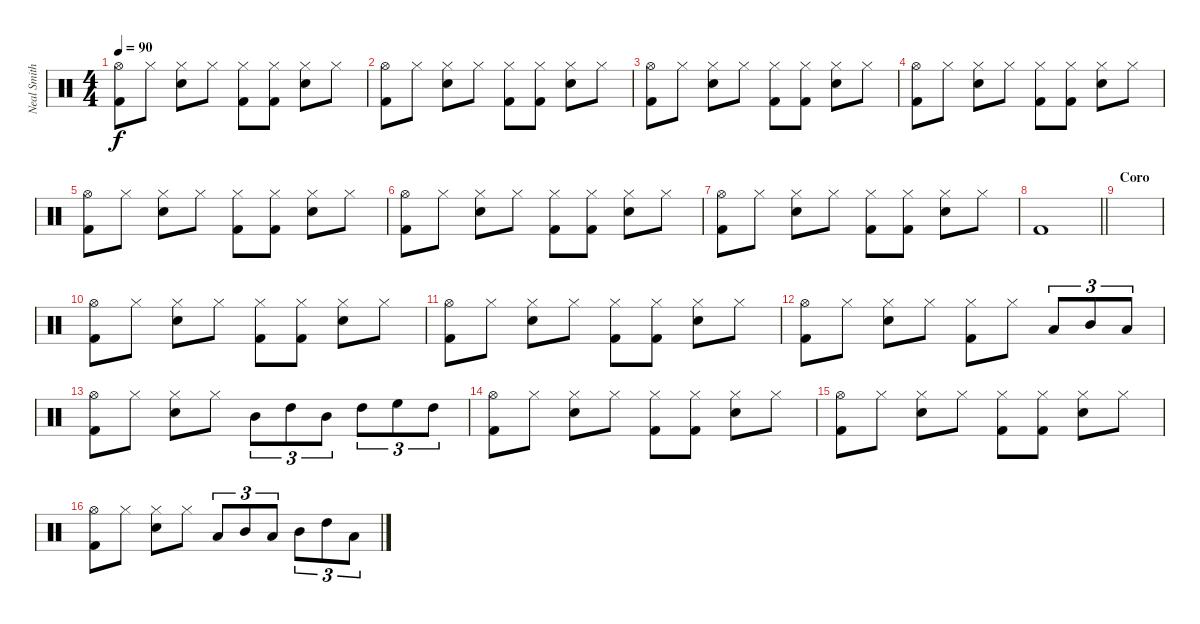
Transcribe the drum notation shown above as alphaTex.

\track ("Neal Smith" "Neal Smith") {instrument percussion}
\staff {score}
\articulation defaults
\ts (4 4)
\tempo 90
\clef neutral
\ks c
("Hi-Hat (open)" "Kick (hit) 2").8{dy f} "Hi-Hat (closed)".8 ("Hi-Hat (closed)" "Snare (hit) 2").8 "Hi-Hat (closed)".8 ("Hi-Hat (closed)" "Kick (hit) 2").8 ("Hi-Hat (closed)" "Kick (hit) 2").8 ("Hi-Hat (closed)" "Snare (hit) 2").8 "Hi-Hat (closed)".8 |
("Hi-Hat (open)" "Kick (hit) 2").8 "Hi-Hat (closed)".8 ("Hi-Hat (closed)" "Snare (hit) 2").8 "Hi-Hat (closed)".8 ("Hi-Hat (closed)" "Kick (hit) 2").8 ("Hi-Hat (closed)" "Kick (hit) 2").8 ("Hi-Hat (closed)" "Snare (hit) 2").8 "Hi-Hat (closed)".8 |
("Hi-Hat (open)" "Kick (hit) 2").8 "Hi-Hat (closed)".8 ("Hi-Hat (closed)" "Snare (hit) 2").8 "Hi-Hat (closed)".8 ("Hi-Hat (closed)" "Kick (hit) 2").8 ("Hi-Hat (closed)" "Kick (hit) 2").8 ("Hi-Hat (closed)" "Snare (hit) 2").8 "Hi-Hat (closed)".8 |
("Hi-Hat (open)" "Kick (hit) 2").8 "Hi-Hat (closed)".8 ("Hi-Hat (closed)" "Snare (hit) 2").8 "Hi-Hat (closed)".8 ("Hi-Hat (closed)" "Kick (hit) 2").8 ("Hi-Hat (closed)" "Kick (hit) 2").8 ("Hi-Hat (closed)" "Snare (hit) 2").8 "Hi-Hat (closed)".8 |
("Hi-Hat (open)" "Kick (hit) 2").8 "Hi-Hat (closed)".8 ("Hi-Hat (closed)" "Snare (hit) 2").8 "Hi-Hat (closed)".8 ("Hi-Hat (closed)" "Kick (hit) 2").8 ("Hi-Hat (closed)" "Kick (hit) 2").8 ("Hi-Hat (closed)" "Snare (hit) 2").8 "Hi-Hat (closed)".8 |
("Hi-Hat (open)" "Kick (hit) 2").8 "Hi-Hat (closed)".8 ("Hi-Hat (closed)" "Snare (hit) 2").8 "Hi-Hat (closed)".8 ("Hi-Hat (closed)" "Kick (hit) 2").8 ("Hi-Hat (closed)" "Kick (hit) 2").8 ("Hi-Hat (closed)" "Snare (hit) 2").8 "Hi-Hat (closed)".8 |
("Hi-Hat (open)" "Kick (hit) 2").8 "Hi-Hat (closed)".8 ("Hi-Hat (closed)" "Snare (hit) 2").8 "Hi-Hat (closed)".8 ("Hi-Hat (closed)" "Kick (hit) 2").8 ("Hi-Hat (closed)" "Kick (hit) 2").8 ("Hi-Hat (closed)" "Snare (hit) 2").8 "Hi-Hat (closed)".8 |
\barLineRight lightlight "Kick (hit) 2".1
|
\section ("" "Coro")
|
("Hi-Hat (open)" "Kick (hit) 2").8 "Hi-Hat (closed)".8 ("Hi-Hat (closed)" "Snare (hit) 2").8 "Hi-Hat (closed)".8 ("Hi-Hat (closed)" "Kick (hit) 2").8 ("Hi-Hat (closed)" "Kick (hit) 2").8 ("Hi-Hat (closed)" "Snare (hit) 2").8 "Hi-Hat (closed)".8 |
("Hi-Hat (open)" "Kick (hit) 2").8 "Hi-Hat (closed)".8 ("Hi-Hat (closed)" "Snare (hit) 2").8 "Hi-Hat (closed)".8 ("Hi-Hat (closed)" "Kick (hit) 2").8 ("Hi-Hat (closed)" "Kick (hit) 2").8 ("Hi-Hat (closed)" "Snare (hit) 2").8 "Hi-Hat (closed)".8 |
("Hi-Hat (open)" "Kick (hit) 2").8 "Hi-Hat (closed)".8 ("Hi-Hat (closed)" "Snare (hit) 2").8 "Hi-Hat (closed)".8 ("Hi-Hat (closed)" "Kick (hit) 2").8 "Hi-Hat (closed)".8 "Low Tom (hit)".8{tu (3 2)} "Mid Tom (hit)".8{tu (3 2)} "Low Tom (hit)".8{tu (3 2)} |
("Hi-Hat (open)" "Kick (hit) 2").8 "Hi-Hat (closed)".8 ("Hi-Hat (closed)" "Snare (hit) 2").8 "Hi-Hat (closed)".8 "Mid Tom (hit)".8{tu (3 2)} "High Tom (hit)".8{tu (3 2)} "Mid Tom (hit)".8{tu (3 2)} "High Tom (hit)".8{tu (3 2)} "High Floor Tom (hit)".8{tu (3 2)} "High Tom (hit)".8{tu (3 2)} |
("Hi-Hat (open)" "Kick (hit) 2").8 "Hi-Hat (closed)".8 ("Hi-Hat (closed)" "Snare (hit) 2").8 "Hi-Hat (closed)".8 ("Hi-Hat (closed)" "Kick (hit) 2").8 ("Hi-Hat (closed)" "Kick (hit) 2").8 ("Hi-Hat (closed)" "Snare (hit) 2").8 "Hi-Hat (closed)".8 |
("Hi-Hat (open)" "Kick (hit) 2").8 "Hi-Hat (closed)".8 ("Hi-Hat (closed)" "Snare (hit) 2").8 "Hi-Hat (closed)".8 ("Hi-Hat (closed)" "Kick (hit) 2").8 ("Hi-Hat (closed)" "Kick (hit) 2").8 ("Hi-Hat (closed)" "Snare (hit) 2").8 "Hi-Hat (closed)".8 |
("Hi-Hat (open)" "Kick (hit) 2").8 "Hi-Hat (closed)".8 ("Hi-Hat (closed)" "Snare (hit) 2").8 "Hi-Hat (closed)".8 "Low Tom (hit)".8{tu (3 2)} "Mid Tom (hit)".8{tu (3 2)} "Low Tom (hit)".8{tu (3 2)} "Mid Tom (hit)".8{tu (3 2)} "High Tom (hit)".8{tu (3 2)} "Low Tom (hit)".8{tu (3 2)}
